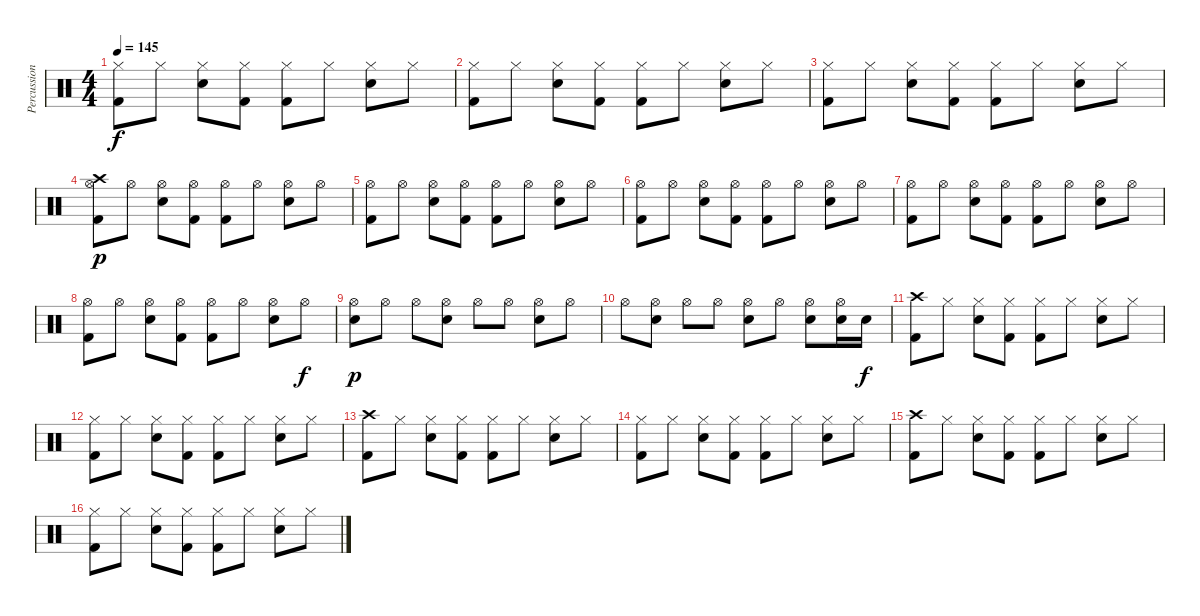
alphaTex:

\track ("Percussion" "Percussion") {instrument percussion}
\staff {score}
\articulation defaults
\ts (4 4)
\tempo 145
\clef neutral
\ks c
("Hi-Hat (closed)" "Kick (hit) 2").8{dy f} "Hi-Hat (closed)".8 ("Hi-Hat (closed)" "Electric Snare (hit)").8 ("Hi-Hat (closed)" "Kick (hit) 2").8 ("Hi-Hat (closed)" "Kick (hit) 2").8 "Hi-Hat (closed)".8 ("Hi-Hat (closed)" "Electric Snare (hit)").8 "Hi-Hat (closed)".8 |
("Hi-Hat (closed)" "Kick (hit) 2").8 "Hi-Hat (closed)".8 ("Hi-Hat (closed)" "Electric Snare (hit)").8 ("Hi-Hat (closed)" "Kick (hit) 2").8 ("Hi-Hat (closed)" "Kick (hit) 2").8 "Hi-Hat (closed)".8 ("Hi-Hat (closed)" "Electric Snare (hit)").8 "Hi-Hat (closed)".8 |
("Hi-Hat (closed)" "Kick (hit) 2").8 "Hi-Hat (closed)".8 ("Hi-Hat (closed)" "Electric Snare (hit)").8 ("Hi-Hat (closed)" "Kick (hit) 2").8 ("Hi-Hat (closed)" "Kick (hit) 2").8 "Hi-Hat (closed)".8 ("Hi-Hat (closed)" "Electric Snare (hit)").8 "Hi-Hat (closed)".8 |
("Crash high (hit)" "Hi-Hat (open)" "Kick (hit) 2").8{dy p} "Hi-Hat (open)".8 ("Hi-Hat (open)" "Electric Snare (hit)").8 ("Hi-Hat (open)" "Kick (hit) 2").8 ("Hi-Hat (open)" "Kick (hit) 2").8 "Hi-Hat (open)".8 ("Hi-Hat (open)" "Electric Snare (hit)").8 "Hi-Hat (open)".8 |
("Hi-Hat (open)" "Kick (hit) 2").8 "Hi-Hat (open)".8 ("Hi-Hat (open)" "Electric Snare (hit)").8 ("Hi-Hat (open)" "Kick (hit) 2").8 ("Hi-Hat (open)" "Kick (hit) 2").8 "Hi-Hat (open)".8 ("Hi-Hat (open)" "Electric Snare (hit)").8 "Hi-Hat (open)".8 |
("Hi-Hat (open)" "Kick (hit) 2").8 "Hi-Hat (open)".8 ("Hi-Hat (open)" "Electric Snare (hit)").8 ("Hi-Hat (open)" "Kick (hit) 2").8 ("Hi-Hat (open)" "Kick (hit) 2").8 "Hi-Hat (open)".8 ("Hi-Hat (open)" "Electric Snare (hit)").8 "Hi-Hat (open)".8 |
("Hi-Hat (open)" "Kick (hit) 2").8 "Hi-Hat (open)".8 ("Hi-Hat (open)" "Electric Snare (hit)").8 ("Hi-Hat (open)" "Kick (hit) 2").8 ("Hi-Hat (open)" "Kick (hit) 2").8 "Hi-Hat (open)".8 ("Hi-Hat (open)" "Electric Snare (hit)").8 "Hi-Hat (open)".8 |
("Hi-Hat (open)" "Kick (hit) 2").8 "Hi-Hat (open)".8 ("Hi-Hat (open)" "Electric Snare (hit)").8 ("Hi-Hat (open)" "Kick (hit) 2").8 ("Hi-Hat (open)" "Kick (hit) 2").8 "Hi-Hat (open)".8 ("Hi-Hat (open)" "Electric Snare (hit)").8 "Hi-Hat (open)".8{dy f} |
("Hi-Hat (open)" "Electric Snare (hit)").8{dy p} "Hi-Hat (open)".8 "Hi-Hat (open)".8 ("Hi-Hat (open)" "Electric Snare (hit)").8 "Hi-Hat (open)".8 "Hi-Hat (open)".8 ("Hi-Hat (open)" "Electric Snare (hit)").8 "Hi-Hat (open)".8 |
"Hi-Hat (open)".8 ("Hi-Hat (open)" "Electric Snare (hit)").8 "Hi-Hat (open)".8 "Hi-Hat (open)".8 ("Hi-Hat (open)" "Electric Snare (hit)").8 "Hi-Hat (open)".8 ("Hi-Hat (open)" "Electric Snare (hit)").8 ("Hi-Hat (open)" "Electric Snare (hit)").16 "Electric Snare (hit)".16{dy f} |
("Crash high (hit)" "Kick (hit) 2").8 "Hi-Hat (closed)".8 ("Hi-Hat (closed)" "Electric Snare (hit)").8 ("Hi-Hat (closed)" "Kick (hit) 2").8 ("Hi-Hat (closed)" "Kick (hit) 2").8 "Hi-Hat (closed)".8 ("Hi-Hat (closed)" "Electric Snare (hit)").8 "Hi-Hat (closed)".8 |
("Hi-Hat (closed)" "Kick (hit) 2").8 "Hi-Hat (closed)".8 ("Hi-Hat (closed)" "Electric Snare (hit)").8 ("Hi-Hat (closed)" "Kick (hit) 2").8 ("Hi-Hat (closed)" "Kick (hit) 2").8 "Hi-Hat (closed)".8 ("Hi-Hat (closed)" "Electric Snare (hit)").8 "Hi-Hat (closed)".8 |
("Crash high (hit)" "Kick (hit) 2").8 "Hi-Hat (closed)".8 ("Hi-Hat (closed)" "Electric Snare (hit)").8 ("Hi-Hat (closed)" "Kick (hit) 2").8 ("Hi-Hat (closed)" "Kick (hit) 2").8 "Hi-Hat (closed)".8 ("Hi-Hat (closed)" "Electric Snare (hit)").8 "Hi-Hat (closed)".8 |
("Hi-Hat (closed)" "Kick (hit) 2").8 "Hi-Hat (closed)".8 ("Hi-Hat (closed)" "Electric Snare (hit)").8 ("Hi-Hat (closed)" "Kick (hit) 2").8 ("Hi-Hat (closed)" "Kick (hit) 2").8 "Hi-Hat (closed)".8 ("Hi-Hat (closed)" "Electric Snare (hit)").8 "Hi-Hat (closed)".8 |
("Crash high (hit)" "Kick (hit) 2").8 "Hi-Hat (closed)".8 ("Hi-Hat (closed)" "Electric Snare (hit)").8 ("Hi-Hat (closed)" "Kick (hit) 2").8 ("Hi-Hat (closed)" "Kick (hit) 2").8 "Hi-Hat (closed)".8 ("Hi-Hat (closed)" "Electric Snare (hit)").8 "Hi-Hat (closed)".8 |
("Hi-Hat (closed)" "Kick (hit) 2").8 "Hi-Hat (closed)".8 ("Hi-Hat (closed)" "Electric Snare (hit)").8 ("Hi-Hat (closed)" "Kick (hit) 2").8 ("Hi-Hat (closed)" "Kick (hit) 2").8 "Hi-Hat (closed)".8 ("Hi-Hat (closed)" "Electric Snare (hit)").8 "Hi-Hat (closed)".8
